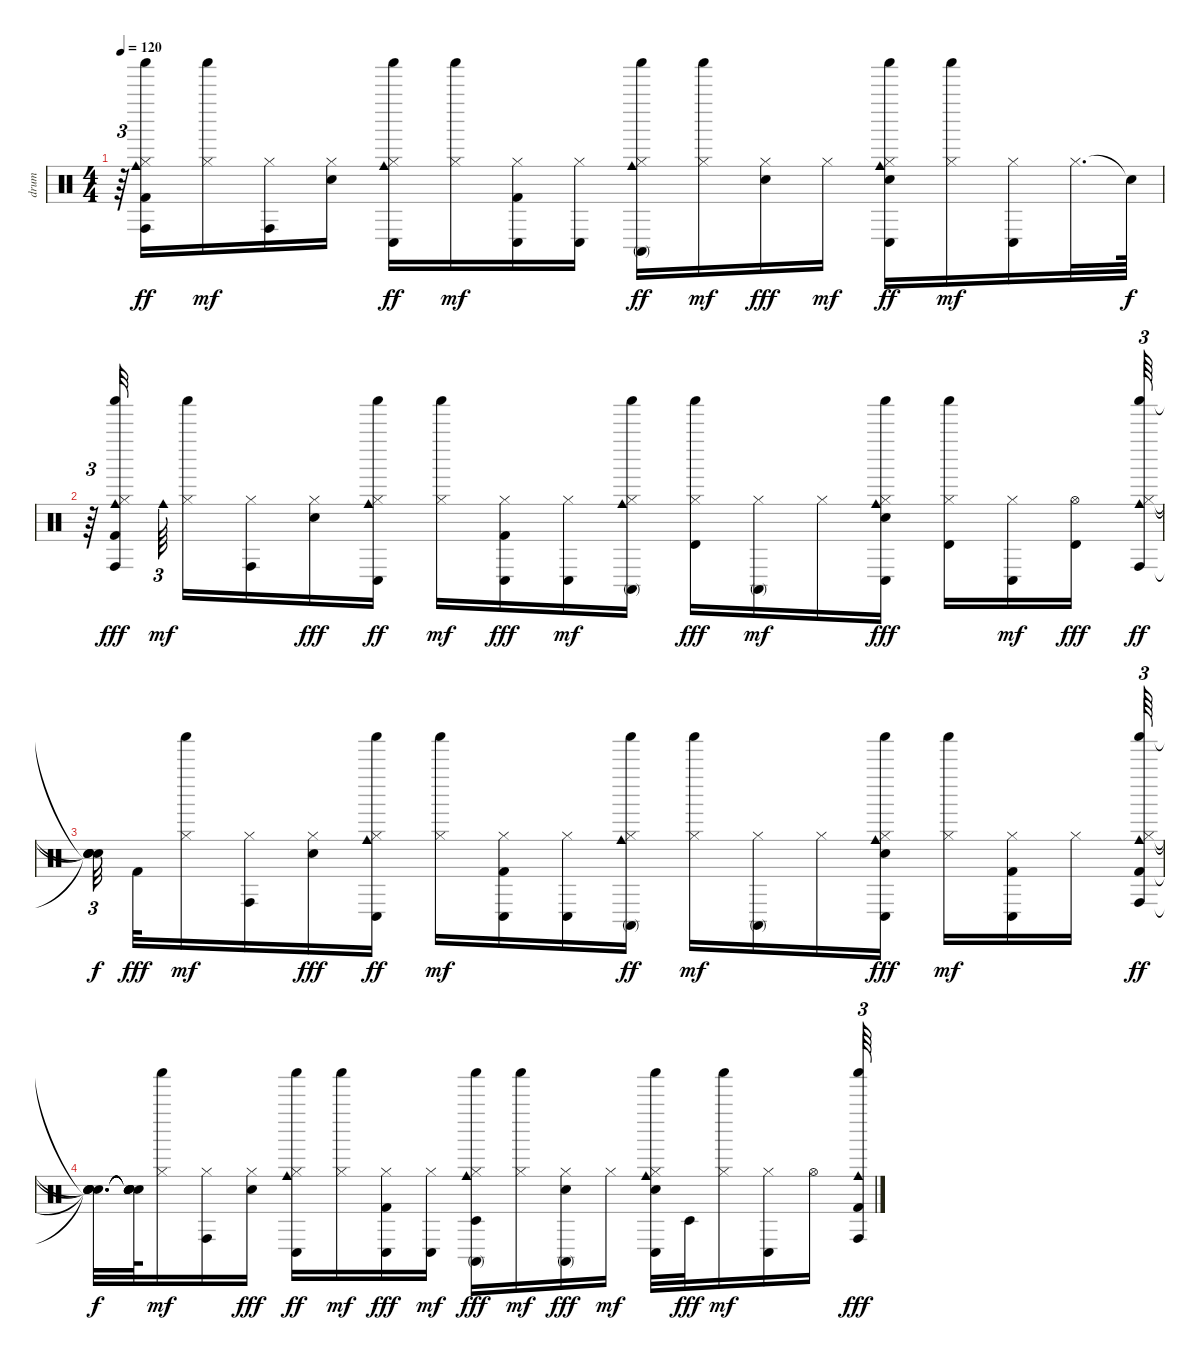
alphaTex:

\track ("drum" "drum") {instrument percussion}
\staff {score}
\articulation defaults
\ts (4 4)
\tempo 120
\clef neutral
\ks c
r.64{tu (3 2) dy f} ("Conga high (hit)" "Shaker (hit)" "Cowbell medium (hit)" "Kick (hit) 2" "Hi-Hat (closed)").16{dy ff} ("Shaker (hit)" "Hi-Hat (closed)").16{dy mf} ("Conga high (hit)" "Hi-Hat (closed)").16 ("Electric Snare (hit)" "Hi-Hat (closed)").16 ("Conga low (hit)" "Cowbell medium (hit)" "Shaker (hit)" "Hi-Hat (closed)").16{dy ff} ("Hi-Hat (closed)" "Shaker (hit)").16{dy mf} ("Conga low (hit)" "Kick (hit) 2" "Hi-Hat (closed)").16 ("Conga low (hit)" "Hi-Hat (closed)").16 ("Conga high (mute)" "Cowbell medium (hit)" "Shaker (hit)" "Hi-Hat (closed)").16{dy ff} ("Shaker (hit)" "Hi-Hat (closed)").16{dy mf} ("Hi-Hat (closed)" "Electric Snare (hit)").16{dy fff} "Hi-Hat (closed)".16{dy mf} ("Conga low (hit)" "Shaker (hit)" "Cowbell medium (hit)" "Electric Snare (hit)" "Hi-Hat (closed)").16{dy ff} ("Shaker (hit)" "Hi-Hat (closed)").16{dy mf} ("Conga low (hit)" "Hi-Hat (closed)").16 "Hi-Hat (closed)".32{d} "Snare (hit)"{t}.64{dy f} |
r.64{tu (3 2)} ("Conga high (hit)" "Shaker (hit)" "Cowbell medium (hit)" "Hi-Hat (closed)" "Kick (hit) 2").32{dy fff beam splitsecondary} "Cowbell medium (hit)".64{tu (3 2) dy mf beam splitsecondary} ("Shaker (hit)" "Hi-Hat (closed)").16 ("Conga high (hit)" "Hi-Hat (closed)").16 ("Hi-Hat (closed)" "Electric Snare (hit)").16{dy fff} ("Conga low (hit)" "Cowbell medium (hit)" "Shaker (hit)" "Hi-Hat (closed)").16{dy ff} ("Shaker (hit)" "Hi-Hat (closed)").16{dy mf} ("Hi-Hat (closed)" "Conga low (hit)" "Kick (hit) 2").16{dy fff} ("Conga low (hit)" "Hi-Hat (closed)").16{dy mf} ("Conga high (mute)" "Cowbell medium (hit)" "Hi-Hat (closed)" "Shaker (hit)").16 ("Shaker (hit)" "Hi-Hat (closed)" "Timbale high (hit)").16{dy fff} ("Conga high (mute)" "Hi-Hat (closed)").16{dy mf} "Hi-Hat (closed)".16 ("Conga low (hit)" "Cowbell medium (hit)" "Shaker (hit)" "Hi-Hat (closed)" "Electric Snare (hit)").16{dy fff} ("Shaker (hit)" "Hi-Hat (closed)" "Timbale high (hit)").16 ("Conga low (hit)" "Hi-Hat (closed)").16{dy mf} ("Hi-Hat (open)" "Timbale high (hit)").16{dy fff beam splitsecondary} ("Conga high (hit)" "Shaker (hit)" "Cowbell medium (hit)" "Hi-Hat (closed)").64{tu (3 2) dy ff} |
("Snare (hit)"{t} "Snare (hit)"{t} "Snare (hit)"{t} "Snare (hit)"{t}).32{tu (3 2) dy f beam splitsecondary} "Kick (hit) 2".32{dy fff} ("Shaker (hit)" "Hi-Hat (closed)").16{dy mf} ("Conga high (hit)" "Hi-Hat (closed)").16 ("Hi-Hat (closed)" "Electric Snare (hit)").16{dy fff} ("Conga low (hit)" "Cowbell medium (hit)" "Shaker (hit)" "Hi-Hat (closed)").16{dy ff} ("Shaker (hit)" "Hi-Hat (closed)").16{dy mf} ("Conga low (hit)" "Kick (hit) 2" "Hi-Hat (closed)").16 ("Conga low (hit)" "Hi-Hat (closed)").16 ("Conga high (mute)" "Cowbell medium (hit)" "Shaker (hit)" "Hi-Hat (closed)").16{dy ff} ("Shaker (hit)" "Hi-Hat (closed)").16{dy mf} ("Conga high (mute)" "Hi-Hat (closed)").16 "Hi-Hat (closed)".16 ("Conga low (hit)" "Cowbell medium (hit)" "Shaker (hit)" "Hi-Hat (closed)" "Electric Snare (hit)").16{dy fff} ("Shaker (hit)" "Hi-Hat (closed)").16{dy mf} ("Conga low (hit)" "Kick (hit) 2" "Hi-Hat (closed)").16 "Hi-Hat (closed)".16{beam splitsecondary} ("Conga high (hit)" "Cowbell medium (hit)" "Shaker (hit)" "Kick (hit) 2" "Hi-Hat (closed)").64{tu (3 2) dy ff} |
("Snare (hit)"{t} "Snare (hit)"{t} "Snare (hit)"{t} "Snare (hit)"{t} "Snare (hit)"{t}).32{d dy f} ("Snare (hit)"{t} "Snare (hit)"{t} "Snare (hit)"{t} "Snare (hit)"{t} "Snare (hit)"{t}).64 ("Shaker (hit)" "Hi-Hat (closed)").16{dy mf} ("Conga high (hit)" "Hi-Hat (closed)").16 ("Hi-Hat (closed)" "Electric Snare (hit)").16{dy fff} ("Conga low (hit)" "Cowbell medium (hit)" "Shaker (hit)" "Hi-Hat (closed)").16{dy ff} ("Shaker (hit)" "Hi-Hat (closed)").16{dy mf} ("Conga low (hit)" "Hi-Hat (closed)" "Kick (hit) 2").16{dy fff} ("Conga low (hit)" "Hi-Hat (closed)").16{dy mf} ("Conga high (mute)" "Cowbell medium (hit)" "Shaker (hit)" "Hi-Hat (closed)" "Timbale low (hit)").16{dy fff} ("Shaker (hit)" "Hi-Hat (closed)").16{dy mf} ("Conga high (mute)" "Hi-Hat (closed)" "Electric Snare (hit)").16{dy fff} "Hi-Hat (closed)".16{dy mf} ("Conga low (hit)" "Hi-Hat (closed)" "Shaker (hit)" "Electric Snare (hit)" "Cowbell medium (hit)").32 "Timbale low (hit)".32{dy fff} ("Shaker (hit)" "Hi-Hat (closed)").16{dy mf} ("Conga low (hit)" "Hi-Hat (closed)").16 "Hi-Hat (open)".16 ("Conga high (hit)" "Shaker (hit)" "Cowbell medium (hit)" "Kick (hit) 2").64{tu (3 2) dy fff}
